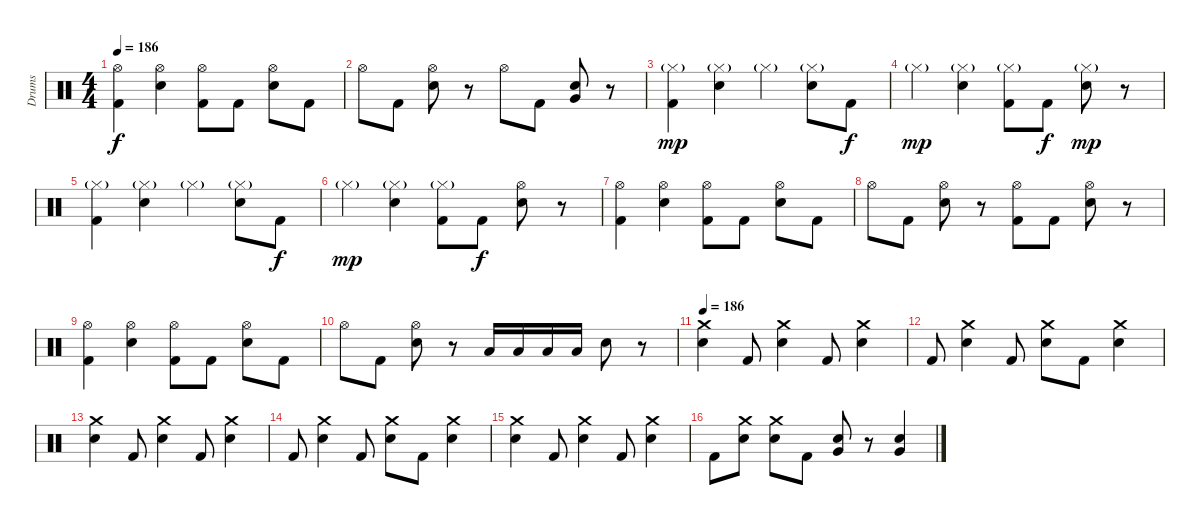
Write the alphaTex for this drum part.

\track ("Drums" "Drums") {instrument percussion}
\staff {score}
\articulation defaults
\ts (4 4)
\tempo 186
\clef neutral
\ks c
("Hi-Hat (open)" "Kick (hit) 2").4{dy f} ("Hi-Hat (open)" "Snare (hit) 2").4 ("Hi-Hat (open)" "Kick (hit) 2").8 "Kick (hit) 2".8 ("Hi-Hat (open)" "Snare (hit) 2").8 "Kick (hit) 2".8 |
"Hi-Hat (open)".8 "Kick (hit) 2".8 ("Hi-Hat (open)" "Snare (hit) 2").8 r.8 "Hi-Hat (open)".8 "Kick (hit) 2".8 ("Very Low Tom (hit)" "Snare (hit) 2").8 r.8 |
("Hi-Hat (closed)"{g} "Kick (hit) 2").4{dy mp} ("Hi-Hat (closed)"{g} "Snare (hit) 2").4 "Hi-Hat (closed)"{g}.4 ("Hi-Hat (closed)"{g} "Snare (hit) 2").8 "Kick (hit) 2".8{dy f} |
"Hi-Hat (closed)"{g}.4{dy mp} ("Hi-Hat (closed)"{g} "Snare (hit) 2").4 ("Hi-Hat (closed)"{g} "Kick (hit) 2").8 "Kick (hit) 2".8{dy f} ("Hi-Hat (closed)"{g} "Snare (hit) 2").8{dy mp} r.8 |
("Hi-Hat (closed)"{g} "Kick (hit) 2").4 ("Hi-Hat (closed)"{g} "Snare (hit) 2").4 "Hi-Hat (closed)"{g}.4 ("Hi-Hat (closed)"{g} "Snare (hit) 2").8 "Kick (hit) 2".8{dy f} |
"Hi-Hat (closed)"{g}.4{dy mp} ("Hi-Hat (closed)"{g} "Snare (hit) 2").4 ("Hi-Hat (closed)"{g} "Kick (hit) 2").8 "Kick (hit) 2".8{dy f} ("Hi-Hat (open)" "Snare (hit) 2").8 r.8 |
("Hi-Hat (open)" "Kick (hit) 2").4 ("Hi-Hat (open)" "Snare (hit) 2").4 ("Hi-Hat (open)" "Kick (hit) 2").8 "Kick (hit) 2".8 ("Hi-Hat (open)" "Snare (hit) 2").8 "Kick (hit) 2".8 |
"Hi-Hat (open)".8 "Kick (hit) 2".8 ("Hi-Hat (open)" "Snare (hit) 2").8 r.8 ("Hi-Hat (open)" "Kick (hit) 2").8 "Kick (hit) 2".8 ("Hi-Hat (open)" "Snare (hit) 2").8 r.8 |
("Hi-Hat (open)" "Kick (hit) 2").4 ("Hi-Hat (open)" "Snare (hit) 2").4 ("Hi-Hat (open)" "Kick (hit) 2").8 "Kick (hit) 2".8 ("Hi-Hat (open)" "Snare (hit) 2").8 "Kick (hit) 2".8 |
"Hi-Hat (open)".8 "Kick (hit) 2".8 ("Hi-Hat (open)" "Snare (hit) 2").8 r.8 "Low Tom (hit)".16 "Low Tom (hit)".16 "Low Tom (hit)".16 "Low Tom (hit)".16 "Snare (hit) 2".8 r.8 |
\tempo 186
("Crash medium (hit)" "Snare (hit) 2").4 "Kick (hit) 2".8 ("Crash medium (hit)" "Snare (hit) 2").4 "Kick (hit) 2".8 ("Crash medium (hit)" "Snare (hit) 2").4 |
"Kick (hit) 2".8 ("Crash medium (hit)" "Snare (hit) 2").4 "Kick (hit) 2".8 ("Crash medium (hit)" "Snare (hit) 2").8 "Kick (hit) 2".8 ("Crash medium (hit)" "Snare (hit) 2").4 |
("Crash medium (hit)" "Snare (hit) 2").4 "Kick (hit) 2".8 ("Crash medium (hit)" "Snare (hit) 2").4 "Kick (hit) 2".8 ("Crash medium (hit)" "Snare (hit) 2").4 |
"Kick (hit) 2".8 ("Crash medium (hit)" "Snare (hit) 2").4 "Kick (hit) 2".8 ("Crash medium (hit)" "Snare (hit) 2").8 "Kick (hit) 2".8 ("Crash medium (hit)" "Snare (hit) 2").4 |
("Crash medium (hit)" "Snare (hit) 2").4 "Kick (hit) 2".8 ("Crash medium (hit)" "Snare (hit) 2").4 "Kick (hit) 2".8 ("Crash medium (hit)" "Snare (hit) 2").4 |
"Kick (hit) 2".8 ("Crash medium (hit)" "Snare (hit) 2").8 ("Crash medium (hit)" "Snare (hit) 2").8 "Kick (hit) 2".8 ("Very Low Tom (hit)" "Snare (hit) 2").8 r.8 ("Very Low Tom (hit)" "Snare (hit) 2").4
